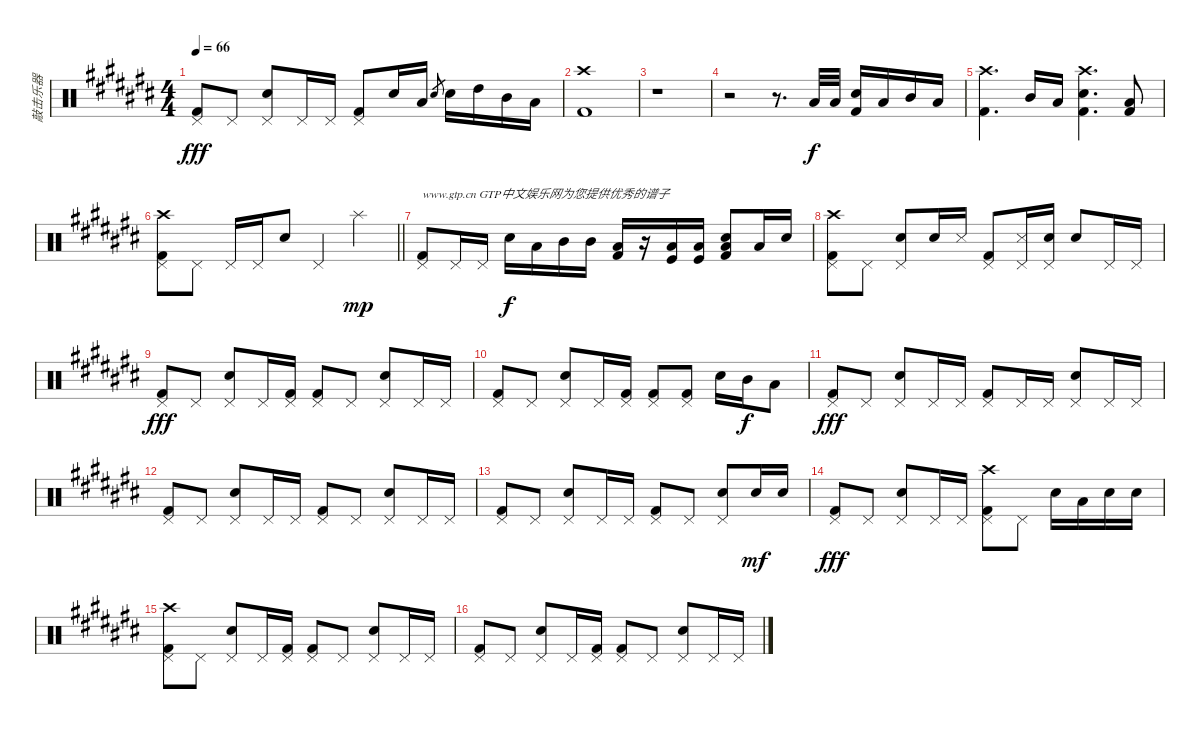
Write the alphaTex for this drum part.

\track ("敲击乐器" "敲击乐器") {instrument percussion}
\staff {score}
\articulation defaults
\ts (4 4)
\tempo 66
\clef neutral
\ks c#
("Pedal Hi-Hat (hit)" "Kick (hit) 2").8{dy fff} "Pedal Hi-Hat (hit)".8 ("Pedal Hi-Hat (hit)" "Snare (hit) 2").8 "Pedal Hi-Hat (hit)".16 "Pedal Hi-Hat (hit)".16 ("Pedal Hi-Hat (hit)" "Kick (hit) 2").8 "Snare (hit) 2".16 "Low Tom (hit)".16 "Snare (hit) 2".8{gr} "Snare (hit) 2".16 "High Tom (hit)".16 "Mid Tom (hit)".16 "Low Tom (hit)".16 |
("Crash high (hit)" "Kick (hit) 2").1 |
r.1 |
r.2 r.8{d} "Low Tom (hit)".32{dy f} "Low Tom (hit)".32 ("Snare (hit) 2" "Kick (hit) 2").16 "Low Tom (hit)".16 "Mid Tom (hit)".16 "Low Tom (hit)".16 |
("Crash high (hit)" "Kick (hit) 2").4{d} "Mid Tom (hit)".16 "Low Tom (hit)".16 ("Crash high (hit)" "Snare (hit) 2" "Kick (hit) 2").4{d} ("Low Tom (hit)" "Kick (hit) 2").8 |
\barLineRight lightlight
("Crash high (hit)" "Pedal Hi-Hat (hit)" "Kick (hit) 2").8 "Pedal Hi-Hat (hit)".8 "Pedal Hi-Hat (hit)".16 "Pedal Hi-Hat (hit)".16 "Snare (hit) 2".8 "Pedal Hi-Hat (hit)".4 "Splash (hit)".4{dy mp} |
("Pedal Hi-Hat (hit)" "Kick (hit) 2").8{txt "www.gtp.cn GTP中文娱乐网为您提供优秀的谱子"} "Pedal Hi-Hat (hit)".16 "Pedal Hi-Hat (hit)".16 "Hand Clap (hit)".16{dy f} "Low Tom (hit)".16 "Mid Tom (hit)".16 "Mid Tom (hit)".16 ("Low Floor Tom (hit)" "Kick (hit) 2").16 r.16 ("Low Floor Tom (hit)" "Kick (hit)").16 ("Low Floor Tom (hit)" "Kick (hit)").16 ("Low Tom (hit)" "Snare (hit) 2" "Kick (hit) 2").8 "Low Tom (hit)".16 "Snare (hit) 2".16 |
("Crash high (hit)" "Pedal Hi-Hat (hit)" "Kick (hit) 2").8 "Pedal Hi-Hat (hit)".8 ("Pedal Hi-Hat (hit)" "Snare (hit) 2").8 "Hand Clap (hit)".16 "Snare (side stick) 3".16 ("Pedal Hi-Hat (hit)" "Kick (hit) 2").8 ("Pedal Hi-Hat (hit)" "Snare (side stick) 3").16 ("Pedal Hi-Hat (hit)" "Hand Clap (hit)").16 "Snare (hit) 2".8 "Pedal Hi-Hat (hit)".16 "Pedal Hi-Hat (hit)".16 |
("Pedal Hi-Hat (hit)" "Kick (hit) 2").8{dy fff} "Pedal Hi-Hat (hit)".8 ("Pedal Hi-Hat (hit)" "Snare (hit) 2").8 "Pedal Hi-Hat (hit)".16 ("Pedal Hi-Hat (hit)" "Kick (hit) 2").16 ("Pedal Hi-Hat (hit)" "Kick (hit) 2").8 "Pedal Hi-Hat (hit)".8 ("Pedal Hi-Hat (hit)" "Snare (hit) 2").8 "Pedal Hi-Hat (hit)".16 "Pedal Hi-Hat (hit)".16 |
("Pedal Hi-Hat (hit)" "Kick (hit) 2").8 "Pedal Hi-Hat (hit)".8 ("Pedal Hi-Hat (hit)" "Snare (hit) 2").8 "Pedal Hi-Hat (hit)".16 ("Pedal Hi-Hat (hit)" "Kick (hit) 2").16 ("Pedal Hi-Hat (hit)" "Kick (hit) 2").8 ("Pedal Hi-Hat (hit)" "Kick (hit) 2").8 "Snare (hit) 2".16 "Mid Tom (hit)".16{dy f} "Low Tom (hit)".8 |
("Pedal Hi-Hat (hit)" "Kick (hit) 2").8{dy fff} "Pedal Hi-Hat (hit)".8 ("Pedal Hi-Hat (hit)" "Snare (hit) 2").8 "Pedal Hi-Hat (hit)".16 "Pedal Hi-Hat (hit)".16 ("Pedal Hi-Hat (hit)" "Kick (hit) 2").8 "Pedal Hi-Hat (hit)".16 "Pedal Hi-Hat (hit)".16 ("Pedal Hi-Hat (hit)" "Snare (hit) 2").8 "Pedal Hi-Hat (hit)".16 "Pedal Hi-Hat (hit)".16 |
("Pedal Hi-Hat (hit)" "Kick (hit) 2").8 "Pedal Hi-Hat (hit)".8 ("Pedal Hi-Hat (hit)" "Snare (hit) 2").8 "Pedal Hi-Hat (hit)".16 "Pedal Hi-Hat (hit)".16 ("Pedal Hi-Hat (hit)" "Kick (hit) 2").8 "Pedal Hi-Hat (hit)".8 ("Pedal Hi-Hat (hit)" "Snare (hit) 2").8 "Pedal Hi-Hat (hit)".16 "Pedal Hi-Hat (hit)".16 |
("Pedal Hi-Hat (hit)" "Kick (hit) 2").8 "Pedal Hi-Hat (hit)".8 ("Pedal Hi-Hat (hit)" "Snare (hit) 2").8 "Pedal Hi-Hat (hit)".16 "Pedal Hi-Hat (hit)".16 ("Pedal Hi-Hat (hit)" "Kick (hit) 2").8 "Pedal Hi-Hat (hit)".8 ("Pedal Hi-Hat (hit)" "Snare (hit) 2").8 "Hand Clap (hit)".16{dy mf} "Hand Clap (hit)".16 |
("Pedal Hi-Hat (hit)" "Kick (hit) 2").8{dy fff} "Pedal Hi-Hat (hit)".8 ("Pedal Hi-Hat (hit)" "Snare (hit) 2").8 "Pedal Hi-Hat (hit)".16 "Pedal Hi-Hat (hit)".16 ("Crash high (hit)" "Pedal Hi-Hat (hit)" "Kick (hit) 2").8 "Pedal Hi-Hat (hit)".8 "Snare (hit) 2".16 "Low Tom (hit)".16 "Snare (hit) 2".16 "Snare (hit) 2".16 |
("Crash high (hit)" "Pedal Hi-Hat (hit)" "Kick (hit) 2").8 "Pedal Hi-Hat (hit)".8 ("Pedal Hi-Hat (hit)" "Snare (hit) 2").8 "Pedal Hi-Hat (hit)".16 ("Pedal Hi-Hat (hit)" "Kick (hit) 2").16 ("Pedal Hi-Hat (hit)" "Kick (hit) 2").8 "Pedal Hi-Hat (hit)".8 ("Pedal Hi-Hat (hit)" "Snare (hit) 2").8 "Pedal Hi-Hat (hit)".16 "Pedal Hi-Hat (hit)".16 |
("Pedal Hi-Hat (hit)" "Kick (hit) 2").8 "Pedal Hi-Hat (hit)".8 ("Pedal Hi-Hat (hit)" "Snare (hit) 2").8 "Pedal Hi-Hat (hit)".16 ("Pedal Hi-Hat (hit)" "Kick (hit) 2").16 ("Pedal Hi-Hat (hit)" "Kick (hit) 2").8 "Pedal Hi-Hat (hit)".8 ("Pedal Hi-Hat (hit)" "Snare (hit) 2").8 "Pedal Hi-Hat (hit)".16 "Pedal Hi-Hat (hit)".16
